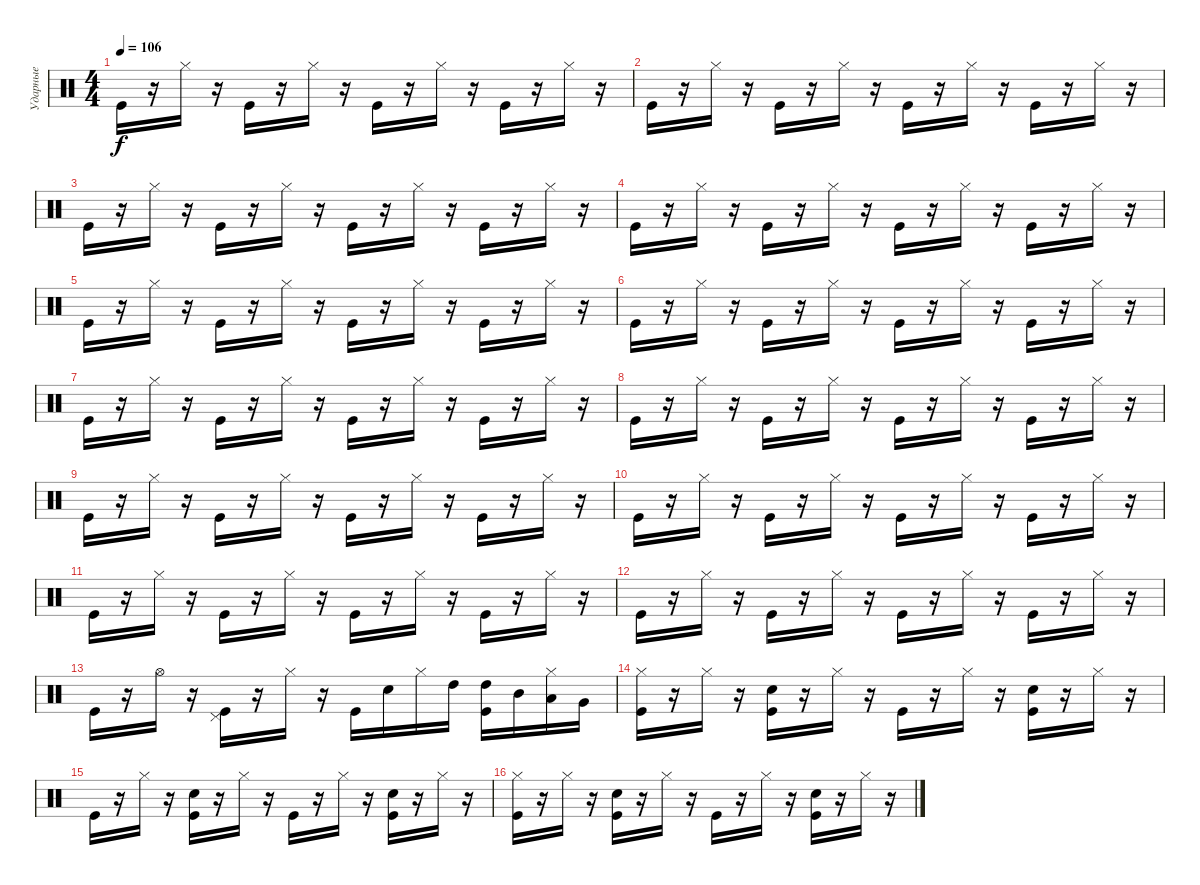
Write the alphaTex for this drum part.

\track ("Ударные" "Ударные") {instrument percussion}
\staff {score}
\articulation defaults
\ts (4 4)
\tempo 106
\clef neutral
\ks c "Kick (hit)".16{dy f}
r.16 "Hi-Hat (closed)".16 r.16 "Kick (hit)".16 r.16 "Hi-Hat (closed)".16 r.16 "Kick (hit)".16 r.16 "Hi-Hat (closed)".16 r.16 "Kick (hit)".16 r.16 "Hi-Hat (closed)".16 r.16 |
"Kick (hit)".16 r.16 "Hi-Hat (closed)".16 r.16 "Kick (hit)".16 r.16 "Hi-Hat (closed)".16 r.16 "Kick (hit)".16 r.16 "Hi-Hat (closed)".16 r.16 "Kick (hit)".16 r.16 "Hi-Hat (closed)".16 r.16 |
"Kick (hit)".16 r.16 "Hi-Hat (closed)".16 r.16 "Kick (hit)".16 r.16 "Hi-Hat (closed)".16 r.16 "Kick (hit)".16 r.16 "Hi-Hat (closed)".16 r.16 "Kick (hit)".16 r.16 "Hi-Hat (closed)".16 r.16 |
"Kick (hit)".16 r.16 "Hi-Hat (closed)".16 r.16 "Kick (hit)".16 r.16 "Hi-Hat (closed)".16 r.16 "Kick (hit)".16 r.16 "Hi-Hat (closed)".16 r.16 "Kick (hit)".16 r.16 "Hi-Hat (closed)".16 r.16 |
"Kick (hit)".16 r.16 "Hi-Hat (closed)".16 r.16 "Kick (hit)".16 r.16 "Hi-Hat (closed)".16 r.16 "Kick (hit)".16 r.16 "Hi-Hat (closed)".16 r.16 "Kick (hit)".16 r.16 "Hi-Hat (closed)".16 r.16 |
"Kick (hit)".16 r.16 "Hi-Hat (closed)".16 r.16 "Kick (hit)".16 r.16 "Hi-Hat (closed)".16 r.16 "Kick (hit)".16 r.16 "Hi-Hat (closed)".16 r.16 "Kick (hit)".16 r.16 "Hi-Hat (closed)".16 r.16 |
"Kick (hit)".16 r.16 "Hi-Hat (closed)".16 r.16 "Kick (hit)".16 r.16 "Hi-Hat (closed)".16 r.16 "Kick (hit)".16 r.16 "Hi-Hat (closed)".16 r.16 "Kick (hit)".16 r.16 "Hi-Hat (closed)".16 r.16 |
"Kick (hit)".16 r.16 "Hi-Hat (closed)".16 r.16 "Kick (hit)".16 r.16 "Hi-Hat (closed)".16 r.16 "Kick (hit)".16 r.16 "Hi-Hat (closed)".16 r.16 "Kick (hit)".16 r.16 "Hi-Hat (closed)".16 r.16 |
"Kick (hit)".16 r.16 "Hi-Hat (closed)".16 r.16 "Kick (hit)".16 r.16 "Hi-Hat (closed)".16 r.16 "Kick (hit)".16 r.16 "Hi-Hat (closed)".16 r.16 "Kick (hit)".16 r.16 "Hi-Hat (closed)".16 r.16 |
"Kick (hit)".16 r.16 "Hi-Hat (closed)".16 r.16 "Kick (hit)".16 r.16 "Hi-Hat (closed)".16 r.16 "Kick (hit)".16 r.16 "Hi-Hat (closed)".16 r.16 "Kick (hit)".16 r.16 "Hi-Hat (closed)".16 r.16 |
"Kick (hit)".16 r.16 "Hi-Hat (closed)".16 r.16 "Kick (hit)".16 r.16 "Hi-Hat (closed)".16 r.16 "Kick (hit)".16 r.16 "Hi-Hat (closed)".16 r.16 "Kick (hit)".16 r.16 "Hi-Hat (closed)".16 r.16 |
"Kick (hit)".16 r.16 "Hi-Hat (closed)".16 r.16 "Kick (hit)".16 r.16 "Hi-Hat (closed)".16 r.16 "Kick (hit)".16 r.16 "Hi-Hat (closed)".16 r.16 "Kick (hit)".16 r.16 "Hi-Hat (closed)".16 r.16 |
"Kick (hit)".16 r.16 "Hi-Hat (open)".16 r.16 ("Pedal Hi-Hat (hit)" "Kick (hit)").16 r.16 "Hi-Hat (closed)".16 r.16 "Kick (hit)".16 "Snare (hit) 2".16 "Hi-Hat (closed)".16 "High Tom (hit)".16 ("High Tom (hit)" "Kick (hit)").16 "Mid Tom (hit)".16 ("Low Tom (hit)" "Hi-Hat (closed)").16 "Very Low Tom (hit)".16 |
("Kick (hit)" "Hi-Hat (closed)").16 r.16 "Hi-Hat (closed)".16 r.16 ("Snare (hit) 2" "Kick (hit)").16 r.16 "Hi-Hat (closed)".16 r.16 "Kick (hit)".16 r.16 "Hi-Hat (closed)".16 r.16 ("Snare (hit) 2" "Kick (hit)").16 r.16 "Hi-Hat (closed)".16 r.16 |
"Kick (hit)".16 r.16 "Hi-Hat (closed)".16 r.16 ("Snare (hit) 2" "Kick (hit)").16 r.16 "Hi-Hat (closed)".16 r.16 "Kick (hit)".16 r.16 "Hi-Hat (closed)".16 r.16 ("Snare (hit) 2" "Kick (hit)").16 r.16 "Hi-Hat (closed)".16 r.16 |
("Kick (hit)" "Hi-Hat (closed)").16 r.16 "Hi-Hat (closed)".16 r.16 ("Snare (hit) 2" "Kick (hit)").16 r.16 "Hi-Hat (closed)".16 r.16 "Kick (hit)".16 r.16 "Hi-Hat (closed)".16 r.16 ("Snare (hit) 2" "Kick (hit)").16 r.16 "Hi-Hat (closed)".16 r.16
